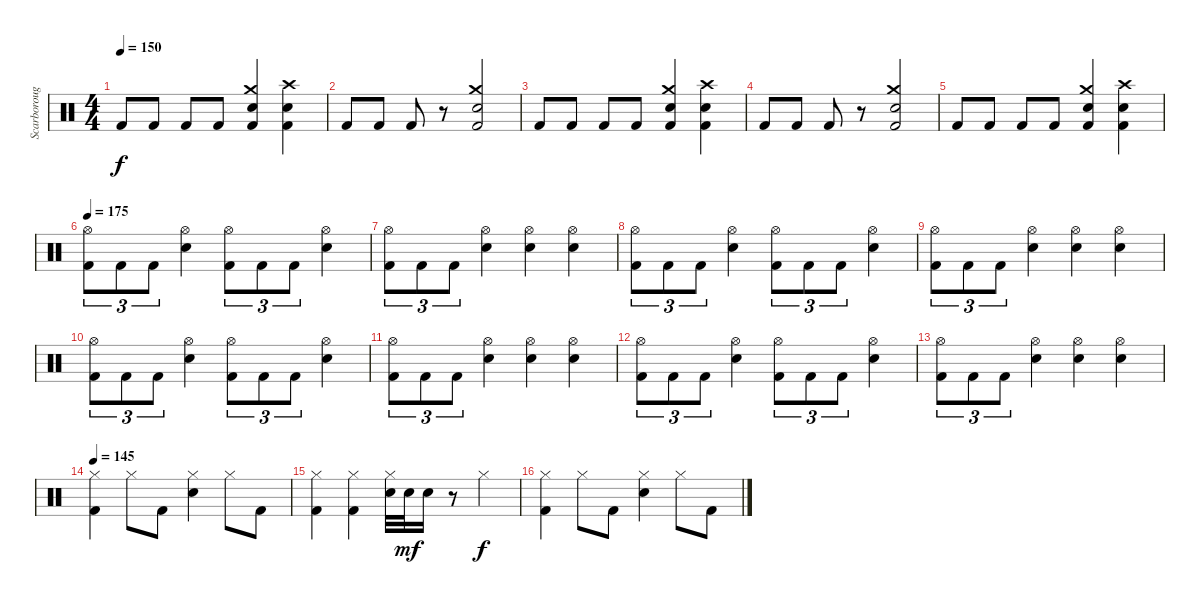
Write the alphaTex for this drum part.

\track ("Scarborough" "Scarboroug") {instrument percussion}
\staff {score}
\articulation defaults
\ts (4 4)
\tempo 150
\clef neutral
\ks c "Kick (hit) 2".8{dy f} "Kick (hit) 2".8 "Kick (hit) 2".8 "Kick (hit) 2".8
("Crash medium (hit)" "Kick (hit) 2" "Snare (hit) 2").4 ("Crash high (hit)" "Kick (hit) 2" "Snare (hit) 2").4 |
"Kick (hit) 2".8 "Kick (hit) 2".8 "Kick (hit) 2".8 r.8 ("Crash medium (hit)" "Kick (hit) 2" "Snare (hit) 2").2 |
"Kick (hit) 2".8 "Kick (hit) 2".8 "Kick (hit) 2".8 "Kick (hit) 2".8 ("Crash medium (hit)" "Kick (hit) 2" "Snare (hit) 2").4 ("Crash high (hit)" "Kick (hit) 2" "Snare (hit) 2").4 |
"Kick (hit) 2".8 "Kick (hit) 2".8 "Kick (hit) 2".8 r.8 ("Crash medium (hit)" "Kick (hit) 2" "Snare (hit) 2").2 |
"Kick (hit) 2".8 "Kick (hit) 2".8 "Kick (hit) 2".8 "Kick (hit) 2".8 ("Crash medium (hit)" "Kick (hit) 2" "Snare (hit) 2").4 ("Crash high (hit)" "Kick (hit) 2" "Snare (hit) 2").4 |
\tempo 175
("Hi-Hat (open)" "Kick (hit) 2").8{tu (3 2)} "Kick (hit) 2".8{tu (3 2)} "Kick (hit) 2".8{tu (3 2)} ("Hi-Hat (open)" "Snare (hit) 2").4 ("Hi-Hat (open)" "Kick (hit) 2").8{tu (3 2)} "Kick (hit) 2".8{tu (3 2)} "Kick (hit) 2".8{tu (3 2)} ("Hi-Hat (open)" "Snare (hit) 2").4 |
("Hi-Hat (open)" "Kick (hit) 2").8{tu (3 2)} "Kick (hit) 2".8{tu (3 2)} "Kick (hit) 2".8{tu (3 2)} ("Hi-Hat (open)" "Snare (hit) 2").4 ("Hi-Hat (open)" "Snare (hit) 2").4 ("Hi-Hat (open)" "Snare (hit) 2").4 |
("Hi-Hat (open)" "Kick (hit) 2").8{tu (3 2)} "Kick (hit) 2".8{tu (3 2)} "Kick (hit) 2".8{tu (3 2)} ("Hi-Hat (open)" "Snare (hit) 2").4 ("Hi-Hat (open)" "Kick (hit) 2").8{tu (3 2)} "Kick (hit) 2".8{tu (3 2)} "Kick (hit) 2".8{tu (3 2)} ("Hi-Hat (open)" "Snare (hit) 2").4 |
("Hi-Hat (open)" "Kick (hit) 2").8{tu (3 2)} "Kick (hit) 2".8{tu (3 2)} "Kick (hit) 2".8{tu (3 2)} ("Hi-Hat (open)" "Snare (hit) 2").4 ("Hi-Hat (open)" "Snare (hit) 2").4 ("Hi-Hat (open)" "Snare (hit) 2").4 |
("Hi-Hat (open)" "Kick (hit) 2").8{tu (3 2)} "Kick (hit) 2".8{tu (3 2)} "Kick (hit) 2".8{tu (3 2)} ("Hi-Hat (open)" "Snare (hit) 2").4 ("Hi-Hat (open)" "Kick (hit) 2").8{tu (3 2)} "Kick (hit) 2".8{tu (3 2)} "Kick (hit) 2".8{tu (3 2)} ("Hi-Hat (open)" "Snare (hit) 2").4 |
("Hi-Hat (open)" "Kick (hit) 2").8{tu (3 2)} "Kick (hit) 2".8{tu (3 2)} "Kick (hit) 2".8{tu (3 2)} ("Hi-Hat (open)" "Snare (hit) 2").4 ("Hi-Hat (open)" "Snare (hit) 2").4 ("Hi-Hat (open)" "Snare (hit) 2").4 |
("Hi-Hat (open)" "Kick (hit) 2").8{tu (3 2)} "Kick (hit) 2".8{tu (3 2)} "Kick (hit) 2".8{tu (3 2)} ("Hi-Hat (open)" "Snare (hit) 2").4 ("Hi-Hat (open)" "Kick (hit) 2").8{tu (3 2)} "Kick (hit) 2".8{tu (3 2)} "Kick (hit) 2".8{tu (3 2)} ("Hi-Hat (open)" "Snare (hit) 2").4 |
("Hi-Hat (open)" "Kick (hit) 2").8{tu (3 2)} "Kick (hit) 2".8{tu (3 2)} "Kick (hit) 2".8{tu (3 2)} ("Hi-Hat (open)" "Snare (hit) 2").4 ("Hi-Hat (open)" "Snare (hit) 2").4 ("Hi-Hat (open)" "Snare (hit) 2").4 |
\tempo 145
("Hi-Hat (closed)" "Kick (hit) 2").4 "Hi-Hat (closed)".8 "Kick (hit) 2".8 ("Hi-Hat (closed)" "Snare (hit) 2").4 "Hi-Hat (closed)".8 "Kick (hit) 2".8 |
("Hi-Hat (closed)" "Kick (hit) 2").4 ("Hi-Hat (closed)" "Kick (hit) 2").4 ("Hi-Hat (closed)" "Snare (hit) 2").32 "Snare (hit) 2".32{dy mf} "Snare (hit) 2".16 r.8 "Hi-Hat (closed)".4{dy f} |
("Hi-Hat (closed)" "Kick (hit) 2").4 "Hi-Hat (closed)".8 "Kick (hit) 2".8 ("Hi-Hat (closed)" "Snare (hit) 2").4 "Hi-Hat (closed)".8 "Kick (hit) 2".8
